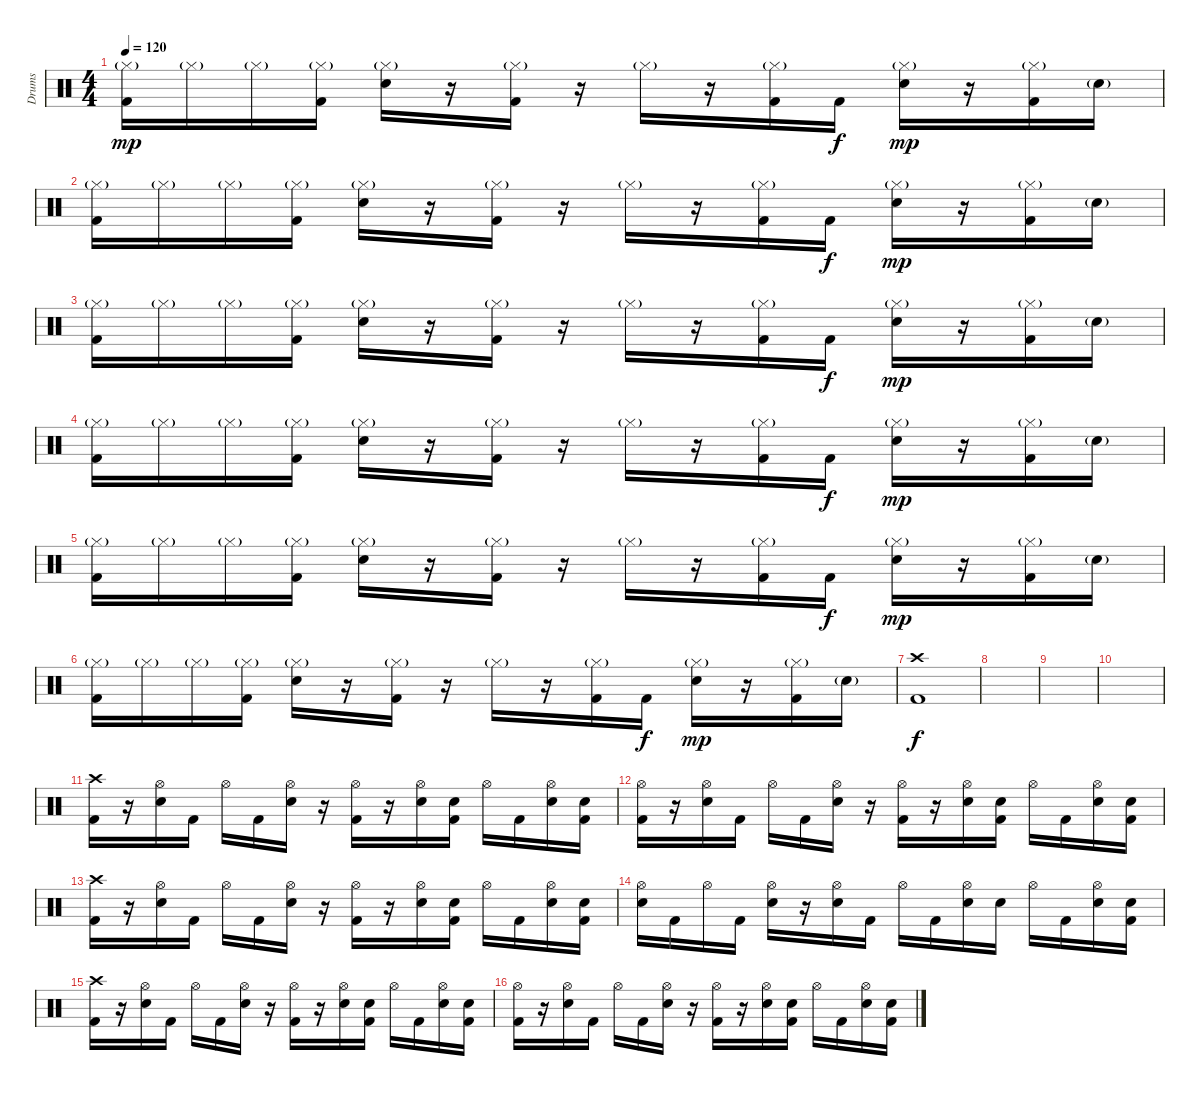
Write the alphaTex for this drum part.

\track ("Drums" "Drums") {instrument percussion}
\staff {score}
\articulation defaults
\ts (4 4)
\tempo 120
\clef neutral
\ks c
("Hi-Hat (closed)"{g} "Kick (hit) 2").16{dy mp} "Hi-Hat (closed)"{g}.16 "Hi-Hat (closed)"{g}.16 ("Hi-Hat (closed)"{g} "Kick (hit) 2").16 ("Hi-Hat (closed)"{g} "Electric Snare (hit)").16 r.16 ("Hi-Hat (closed)"{g} "Kick (hit) 2").16 r.16 "Hi-Hat (closed)"{g}.16 r.16 ("Hi-Hat (closed)"{g} "Kick (hit) 2").16 "Kick (hit) 2".16{dy f} ("Hi-Hat (closed)"{g} "Electric Snare (hit)").16{dy mp} r.16 ("Hi-Hat (closed)"{g} "Kick (hit) 2").16 "Electric Snare (hit)"{g}.16 |
("Hi-Hat (closed)"{g} "Kick (hit) 2").16 "Hi-Hat (closed)"{g}.16 "Hi-Hat (closed)"{g}.16 ("Hi-Hat (closed)"{g} "Kick (hit) 2").16 ("Hi-Hat (closed)"{g} "Electric Snare (hit)").16 r.16 ("Hi-Hat (closed)"{g} "Kick (hit) 2").16 r.16 "Hi-Hat (closed)"{g}.16 r.16 ("Hi-Hat (closed)"{g} "Kick (hit) 2").16 "Kick (hit) 2".16{dy f} ("Hi-Hat (closed)"{g} "Electric Snare (hit)").16{dy mp} r.16 ("Hi-Hat (closed)"{g} "Kick (hit) 2").16 "Electric Snare (hit)"{g}.16 |
("Hi-Hat (closed)"{g} "Kick (hit) 2").16 "Hi-Hat (closed)"{g}.16 "Hi-Hat (closed)"{g}.16 ("Hi-Hat (closed)"{g} "Kick (hit) 2").16 ("Hi-Hat (closed)"{g} "Electric Snare (hit)").16 r.16 ("Hi-Hat (closed)"{g} "Kick (hit) 2").16 r.16 "Hi-Hat (closed)"{g}.16 r.16 ("Hi-Hat (closed)"{g} "Kick (hit) 2").16 "Kick (hit) 2".16{dy f} ("Hi-Hat (closed)"{g} "Electric Snare (hit)").16{dy mp} r.16 ("Hi-Hat (closed)"{g} "Kick (hit) 2").16 "Electric Snare (hit)"{g}.16 |
("Hi-Hat (closed)"{g} "Kick (hit) 2").16 "Hi-Hat (closed)"{g}.16 "Hi-Hat (closed)"{g}.16 ("Hi-Hat (closed)"{g} "Kick (hit) 2").16 ("Hi-Hat (closed)"{g} "Electric Snare (hit)").16 r.16 ("Hi-Hat (closed)"{g} "Kick (hit) 2").16 r.16 "Hi-Hat (closed)"{g}.16 r.16 ("Hi-Hat (closed)"{g} "Kick (hit) 2").16 "Kick (hit) 2".16{dy f} ("Hi-Hat (closed)"{g} "Electric Snare (hit)").16{dy mp} r.16 ("Hi-Hat (closed)"{g} "Kick (hit) 2").16 "Electric Snare (hit)"{g}.16 |
("Hi-Hat (closed)"{g} "Kick (hit) 2").16 "Hi-Hat (closed)"{g}.16 "Hi-Hat (closed)"{g}.16 ("Hi-Hat (closed)"{g} "Kick (hit) 2").16 ("Hi-Hat (closed)"{g} "Electric Snare (hit)").16 r.16 ("Hi-Hat (closed)"{g} "Kick (hit) 2").16 r.16 "Hi-Hat (closed)"{g}.16 r.16 ("Hi-Hat (closed)"{g} "Kick (hit) 2").16 "Kick (hit) 2".16{dy f} ("Hi-Hat (closed)"{g} "Electric Snare (hit)").16{dy mp} r.16 ("Hi-Hat (closed)"{g} "Kick (hit) 2").16 "Electric Snare (hit)"{g}.16 |
("Hi-Hat (closed)"{g} "Kick (hit) 2").16 "Hi-Hat (closed)"{g}.16 "Hi-Hat (closed)"{g}.16 ("Hi-Hat (closed)"{g} "Kick (hit) 2").16 ("Hi-Hat (closed)"{g} "Electric Snare (hit)").16 r.16 ("Hi-Hat (closed)"{g} "Kick (hit) 2").16 r.16 "Hi-Hat (closed)"{g}.16 r.16 ("Hi-Hat (closed)"{g} "Kick (hit) 2").16 "Kick (hit) 2".16{dy f} ("Hi-Hat (closed)"{g} "Electric Snare (hit)").16{dy mp} r.16 ("Hi-Hat (closed)"{g} "Kick (hit) 2").16 "Electric Snare (hit)"{g}.16 |
("Crash high (hit)" "Kick (hit) 2").1{dy f} |
|
|
|
("Crash high (hit)" "Kick (hit) 2").16 r.16 ("Hi-Hat (open)" "Electric Snare (hit)").16 "Kick (hit) 2".16 "Hi-Hat (open)".16 "Kick (hit) 2".16 ("Hi-Hat (open)" "Electric Snare (hit)").16 r.16 ("Hi-Hat (open)" "Kick (hit) 2").16 r.16 ("Hi-Hat (open)" "Electric Snare (hit)").16 ("Electric Snare (hit)" "Kick (hit) 2").16 "Hi-Hat (open)".16 "Kick (hit) 2".16 ("Hi-Hat (open)" "Electric Snare (hit)").16 ("Electric Snare (hit)" "Kick (hit) 2").16 |
("Hi-Hat (open)" "Kick (hit) 2").16 r.16 ("Hi-Hat (open)" "Electric Snare (hit)").16 "Kick (hit) 2".16 "Hi-Hat (open)".16 "Kick (hit) 2".16 ("Hi-Hat (open)" "Electric Snare (hit)").16 r.16 ("Hi-Hat (open)" "Kick (hit) 2").16 r.16 ("Hi-Hat (open)" "Electric Snare (hit)").16 ("Electric Snare (hit)" "Kick (hit) 2").16 "Hi-Hat (open)".16 "Kick (hit) 2".16 ("Hi-Hat (open)" "Electric Snare (hit)").16 ("Electric Snare (hit)" "Kick (hit) 2").16 |
("Crash high (hit)" "Kick (hit) 2").16 r.16 ("Hi-Hat (open)" "Electric Snare (hit)").16 "Kick (hit) 2".16 "Hi-Hat (open)".16 "Kick (hit) 2".16 ("Hi-Hat (open)" "Electric Snare (hit)").16 r.16 ("Hi-Hat (open)" "Kick (hit) 2").16 r.16 ("Hi-Hat (open)" "Electric Snare (hit)").16 ("Electric Snare (hit)" "Kick (hit) 2").16 "Hi-Hat (open)".16 "Kick (hit) 2".16 ("Hi-Hat (open)" "Electric Snare (hit)").16 ("Electric Snare (hit)" "Kick (hit) 2").16 |
("Hi-Hat (open)" "Electric Snare (hit)").16 "Kick (hit) 2".16 "Hi-Hat (open)".16 "Kick (hit) 2".16 ("Hi-Hat (open)" "Electric Snare (hit)").16 r.16 ("Hi-Hat (open)" "Electric Snare (hit)").16 "Kick (hit) 2".16 "Hi-Hat (open)".16 "Kick (hit) 2".16 ("Hi-Hat (open)" "Electric Snare (hit)").16 "Electric Snare (hit)".16 "Hi-Hat (open)".16 "Kick (hit) 2".16 ("Hi-Hat (open)" "Electric Snare (hit)").16 ("Electric Snare (hit)" "Kick (hit) 2").16 |
("Crash high (hit)" "Kick (hit) 2").16 r.16 ("Hi-Hat (open)" "Electric Snare (hit)").16 "Kick (hit) 2".16 "Hi-Hat (open)".16 "Kick (hit) 2".16 ("Hi-Hat (open)" "Electric Snare (hit)").16 r.16 ("Hi-Hat (open)" "Kick (hit) 2").16 r.16 ("Hi-Hat (open)" "Electric Snare (hit)").16 ("Electric Snare (hit)" "Kick (hit) 2").16 "Hi-Hat (open)".16 "Kick (hit) 2".16 ("Hi-Hat (open)" "Electric Snare (hit)").16 ("Electric Snare (hit)" "Kick (hit) 2").16 |
("Hi-Hat (open)" "Kick (hit) 2").16 r.16 ("Hi-Hat (open)" "Electric Snare (hit)").16 "Kick (hit) 2".16 "Hi-Hat (open)".16 "Kick (hit) 2".16 ("Hi-Hat (open)" "Electric Snare (hit)").16 r.16 ("Hi-Hat (open)" "Kick (hit) 2").16 r.16 ("Hi-Hat (open)" "Electric Snare (hit)").16 ("Electric Snare (hit)" "Kick (hit) 2").16 "Hi-Hat (open)".16 "Kick (hit) 2".16 ("Hi-Hat (open)" "Electric Snare (hit)").16 ("Electric Snare (hit)" "Kick (hit) 2").16
